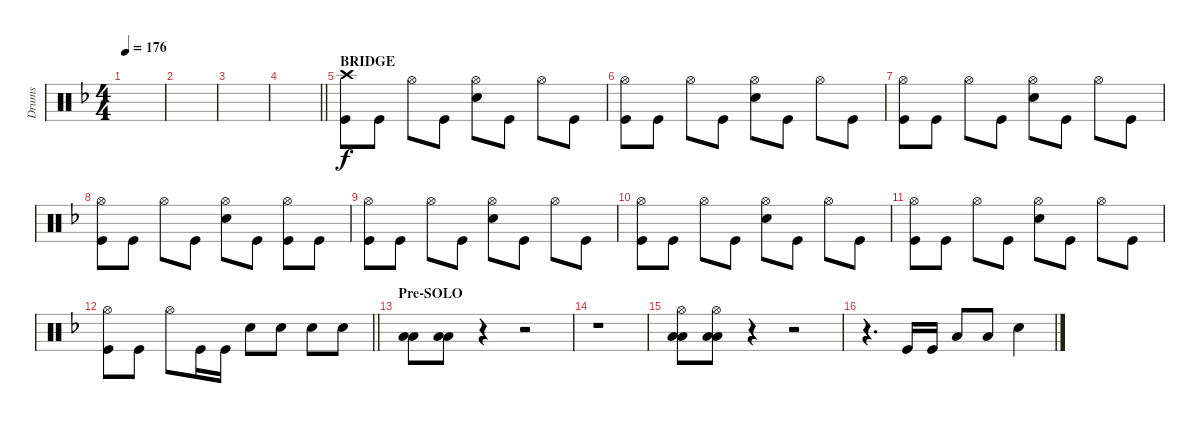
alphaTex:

\track ("Drums" "Drums") {instrument percussion}
\staff {score}
\articulation defaults
\ts (4 4)
\tempo 176
\clef neutral
\ks f
|
|
|
\barLineRight lightlight
|
\section ("" "BRIDGE")
("Crash high (hit)" "Kick (hit)").8 "Kick (hit)".8 "Hi-Hat (open)".8 "Kick (hit)".8 ("Hi-Hat (open)" "Snare (hit) 2").8 "Kick (hit)".8 "Hi-Hat (open)".8 "Kick (hit)".8 |
("Hi-Hat (open)" "Kick (hit)").8 "Kick (hit)".8 "Hi-Hat (open)".8 "Kick (hit)".8 ("Hi-Hat (open)" "Snare (hit) 2").8 "Kick (hit)".8 "Hi-Hat (open)".8 "Kick (hit)".8 |
("Hi-Hat (open)" "Kick (hit)").8 "Kick (hit)".8 "Hi-Hat (open)".8 "Kick (hit)".8 ("Hi-Hat (open)" "Snare (hit) 2").8 "Kick (hit)".8 "Hi-Hat (open)".8 "Kick (hit)".8 |
("Hi-Hat (open)" "Kick (hit)").8 "Kick (hit)".8 "Hi-Hat (open)".8 "Kick (hit)".8 ("Hi-Hat (open)" "Snare (hit) 2").8 "Kick (hit)".8 ("Hi-Hat (open)" "Kick (hit)").8 "Kick (hit)".8 |
("Hi-Hat (open)" "Kick (hit)").8 "Kick (hit)".8 "Hi-Hat (open)".8 "Kick (hit)".8 ("Hi-Hat (open)" "Snare (hit) 2").8 "Kick (hit)".8 "Hi-Hat (open)".8 "Kick (hit)".8 |
("Hi-Hat (open)" "Kick (hit)").8 "Kick (hit)".8 "Hi-Hat (open)".8 "Kick (hit)".8 ("Hi-Hat (open)" "Snare (hit) 2").8 "Kick (hit)".8 "Hi-Hat (open)".8 "Kick (hit)".8 |
("Hi-Hat (open)" "Kick (hit)").8 "Kick (hit)".8 "Hi-Hat (open)".8 "Kick (hit)".8 ("Hi-Hat (open)" "Snare (hit) 2").8 "Kick (hit)".8 "Hi-Hat (open)".8 "Kick (hit)".8 |
\barLineRight lightlight
("Hi-Hat (open)" "Kick (hit)").8 "Kick (hit)".8 "Hi-Hat (open)".8 "Kick (hit)".16 "Kick (hit)".16 "Snare (hit) 2".8 "Snare (hit) 2".8 "Snare (hit) 2".8 "Snare (hit) 2".8 |
\section ("" "Pre-SOLO")
("Low Tom (hit)" "Low Floor Tom (hit)").8{beam Down} ("Low Tom (hit)" "Low Floor Tom (hit)").8{beam Down} r.4 r.2 |
r.1 |
("Hi-Hat (open)" "Low Tom (hit)" "Low Floor Tom (hit)").8 ("Hi-Hat (open)" "Low Tom (hit)" "Low Floor Tom (hit)").8 r.4 r.2 |
r.4{d} "Kick (hit)".16 "Kick (hit)".16 "Low Tom (hit)".8 "Low Floor Tom (hit)".8 "Snare (hit) 2".4
